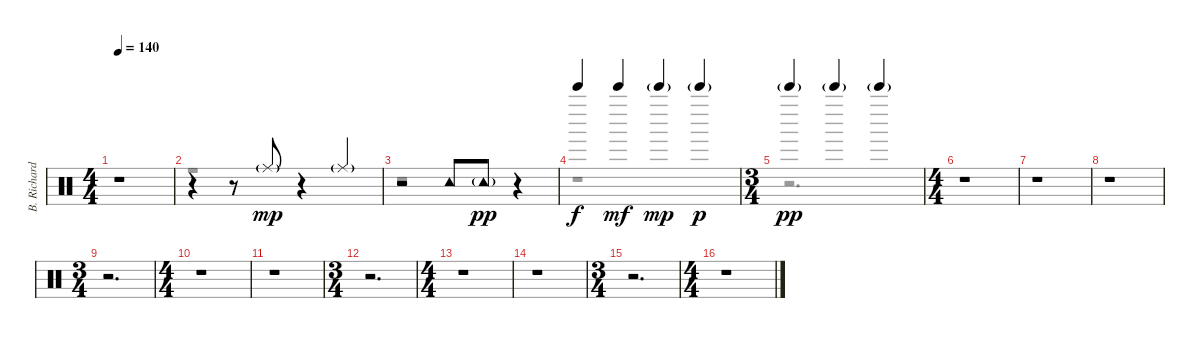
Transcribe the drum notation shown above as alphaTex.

\track ("B. Richardson Drums/Percussion" "B. Richard") {instrument percussion}
\staff {score}
\articulation defaults
\voice
\ts (4 4)
\tempo 140
\clef neutral
\ks c
r.1{dy mp} |
r.4 r.8 "Ride (middle)"{g}.8 r.4 "Ride (middle)"{g}.4 |
r.2 "Tambourine (hit)".8 "Tambourine (hit)"{g}.8{dy pp} r.4 |
"Bell Tree (hit)".4{dy f} "Bell Tree (hit)".4{dy mf} "Bell Tree (hit)"{g}.4{dy mp} "Bell Tree (hit)"{g}.4{dy p} |
\ts (3 4)
"Bell Tree (hit)"{g}.4{dy pp} "Bell Tree (hit)"{g}.4 "Bell Tree (hit)"{g}.4 |
\ts (4 4)
r.1 |
r.1 |
r.1 |
\ts (3 4)
r.2{d} |
\ts (4 4)
r.1 |
r.1 |
\ts (3 4)
r.2{d} |
\ts (4 4)
r.1 |
r.1 |
\ts (3 4)
r.2{d} |
\ts (4 4)
r.1{volume 0}
\voice
\clef neutral
\ottava regular
\simile none
\ks c
r.1{dy fff} |
r.1 |
r.1 |
r.1 |
r.2{d} |
r.1 |
r.1 |
r.1 |
r.2{d} |
r.1 |
r.1 |
r.2{d} |
r.1 |
r.1 |
r.2{d} |
r.1
